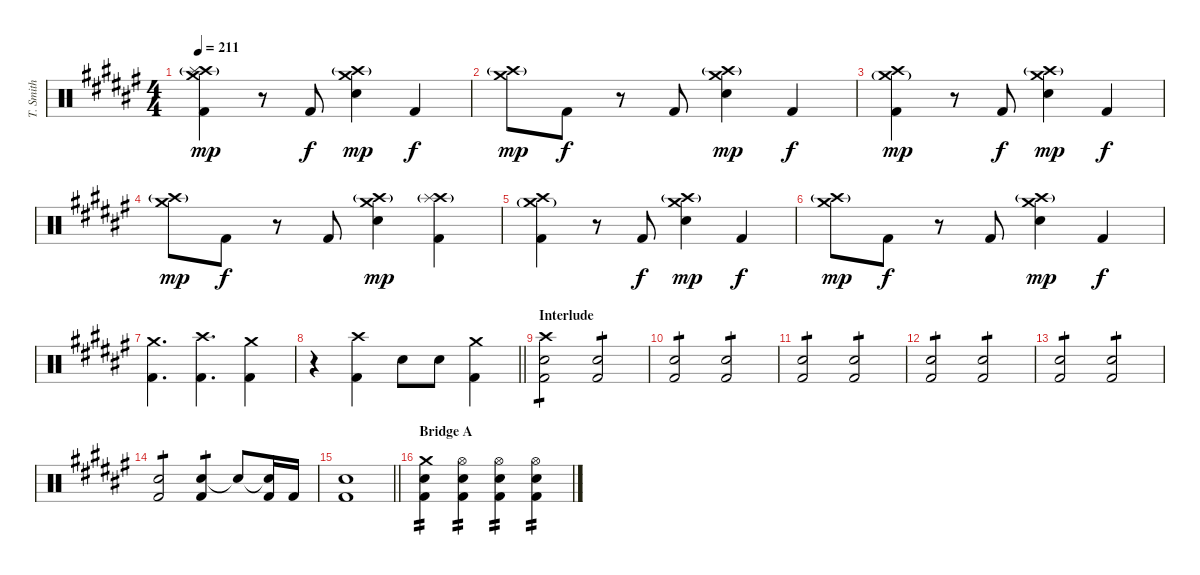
\track ("T. Smith" "T. Smith") {instrument percussion}
\staff {score}
\articulation defaults
\ts (4 4)
\tempo 211
\clef neutral
\ks d#minor
("Crash medium (hit)" "Crash high (hit)"{g} "Splash (hit)" "Kick (hit) 2").4{dy mp} r.8 "Kick (hit) 2".8{dy f} ("Crash medium (hit)" "Crash high (hit)"{g} "Electric Snare (hit)").4{dy mp} "Kick (hit) 2".4{dy f} |
("Crash medium (hit)" "Crash high (hit)"{g}).8{dy mp} "Kick (hit) 2".8{dy f} r.8 "Kick (hit) 2".8 ("Crash medium (hit)" "Crash high (hit)"{g} "Electric Snare (hit)").4{dy mp} "Kick (hit) 2".4{dy f} |
("Crash medium (hit)"{g} "Crash high (hit)" "Kick (hit) 2").4{dy mp} r.8 "Kick (hit) 2".8{dy f} ("Crash medium (hit)" "Crash high (hit)"{g} "Electric Snare (hit)").4{dy mp} "Kick (hit) 2".4{dy f} |
("Crash medium (hit)" "Crash high (hit)"{g}).8{dy mp} "Kick (hit) 2".8{dy f} r.8 "Kick (hit) 2".8 ("Crash medium (hit)" "Crash high (hit)"{g} "Electric Snare (hit)").4{dy mp} ("Crash high (hit)"{g} "Splash (hit)" "Kick (hit) 2").4 |
("Crash medium (hit)"{g} "Crash high (hit)" "Kick (hit) 2").4 r.8 "Kick (hit) 2".8{dy f} ("Crash medium (hit)" "Crash high (hit)"{g} "Electric Snare (hit)").4{dy mp} "Kick (hit) 2".4{dy f} |
("Crash medium (hit)" "Crash high (hit)"{g}).8{dy mp} "Kick (hit) 2".8{dy f} r.8 "Kick (hit) 2".8 ("Crash medium (hit)" "Crash high (hit)"{g} "Electric Snare (hit)").4{dy mp} "Kick (hit) 2".4{dy f} |
("Crash medium (hit)" "Kick (hit) 2").4{d} ("Crash high (hit)" "Kick (hit) 2").4{d} ("Crash medium (hit)" "Kick (hit) 2").4 |
\barLineRight lightlight
r.4 ("Crash high (hit)" "Kick (hit) 2").4 "Electric Snare (hit)".8 "Electric Snare (hit)".8 ("Crash medium (hit)" "Kick (hit) 2").4 |
\section ("" "Interlude")
("Crash high (hit)" "Electric Snare (hit)" "Kick (hit) 2").2{tp 1 volume 9} ("Electric Snare (hit)" "Kick (hit) 2").2{tp 1} |
("Electric Snare (hit)" "Kick (hit) 2").2{tp 1} ("Electric Snare (hit)" "Kick (hit) 2").2{tp 1} |
("Electric Snare (hit)" "Kick (hit) 2").2{tp 1 volume 11} ("Electric Snare (hit)" "Kick (hit) 2").2{tp 1} |
("Electric Snare (hit)" "Kick (hit) 2").2{tp 1} ("Electric Snare (hit)" "Kick (hit) 2").2{tp 1} |
("Electric Snare (hit)" "Kick (hit) 2").2{tp 1} ("Electric Snare (hit)" "Kick (hit) 2").2{tp 1} |
("Electric Snare (hit)" "Kick (hit) 2").2{tp 1 volume 13} ("Electric Snare (hit)" "Kick (hit) 2").4{tp 1} "Snare (hit)"{t}.8 ("Snare (hit)"{t} "Kick (hit) 2").16 "Kick (hit) 2".16 |
\barLineRight lightlight
("Electric Snare (hit)" "Kick (hit) 2").1 |
\section ("" "Bridge A")
("Crash medium (hit)" "Electric Snare (hit)" "Kick (hit) 2").4{tp 2} ("Hi-Hat (open)" "Electric Snare (hit)" "Kick (hit) 2").4{tp 2} ("Hi-Hat (open)" "Electric Snare (hit)" "Kick (hit) 2").4{tp 2} ("Hi-Hat (open)" "Electric Snare (hit)" "Kick (hit) 2").4{tp 2}
